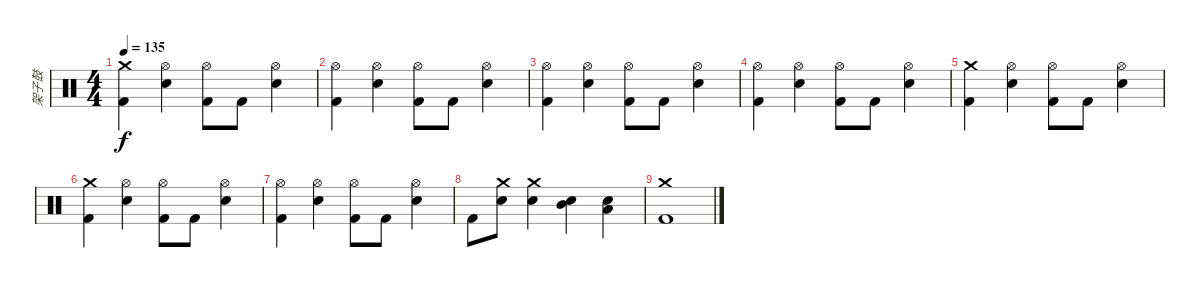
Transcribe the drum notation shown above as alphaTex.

\track ("架子鼓" "架子鼓") {instrument percussion}
\staff {score}
\articulation defaults
\ts (4 4)
\tempo 135
\clef neutral
\ks c
("Crash medium (hit)" "Kick (hit) 2").4{dy f} ("Hi-Hat (open)" "Electric Snare (hit)").4 ("Hi-Hat (open)" "Kick (hit) 2").8 "Kick (hit) 2".8 ("Hi-Hat (open)" "Electric Snare (hit)").4 |
("Hi-Hat (open)" "Kick (hit) 2").4 ("Hi-Hat (open)" "Electric Snare (hit)").4 ("Hi-Hat (open)" "Kick (hit) 2").8 "Kick (hit) 2".8 ("Hi-Hat (open)" "Electric Snare (hit)").4 |
("Hi-Hat (open)" "Kick (hit) 2").4 ("Hi-Hat (open)" "Electric Snare (hit)").4 ("Hi-Hat (open)" "Kick (hit) 2").8 "Kick (hit) 2".8 ("Hi-Hat (open)" "Electric Snare (hit)").4 |
("Hi-Hat (open)" "Kick (hit) 2").4 ("Hi-Hat (open)" "Electric Snare (hit)").4 ("Hi-Hat (open)" "Kick (hit) 2").8 "Kick (hit) 2".8 ("Hi-Hat (open)" "Electric Snare (hit)").4 |
("Crash medium (hit)" "Kick (hit) 2").4 ("Hi-Hat (open)" "Electric Snare (hit)").4 ("Hi-Hat (open)" "Kick (hit) 2").8 "Kick (hit) 2".8 ("Hi-Hat (open)" "Electric Snare (hit)").4 |
("Crash medium (hit)" "Kick (hit) 2").4 ("Hi-Hat (open)" "Electric Snare (hit)").4 ("Hi-Hat (open)" "Kick (hit) 2").8 "Kick (hit) 2".8 ("Hi-Hat (open)" "Electric Snare (hit)").4 |
("Hi-Hat (open)" "Kick (hit) 2").4 ("Hi-Hat (open)" "Electric Snare (hit)").4 ("Hi-Hat (open)" "Kick (hit) 2").8 "Kick (hit) 2".8 ("Hi-Hat (open)" "Electric Snare (hit)").4 |
"Kick (hit) 2".8 ("Crash medium (hit)" "Electric Snare (hit)").8 ("Crash medium (hit)" "Electric Snare (hit)").4 ("Electric Snare (hit)" "Mid Tom (hit)").4 ("Electric Snare (hit)" "Low Tom (hit)").4 |
("Crash medium (hit)" "Kick (hit) 2").1
